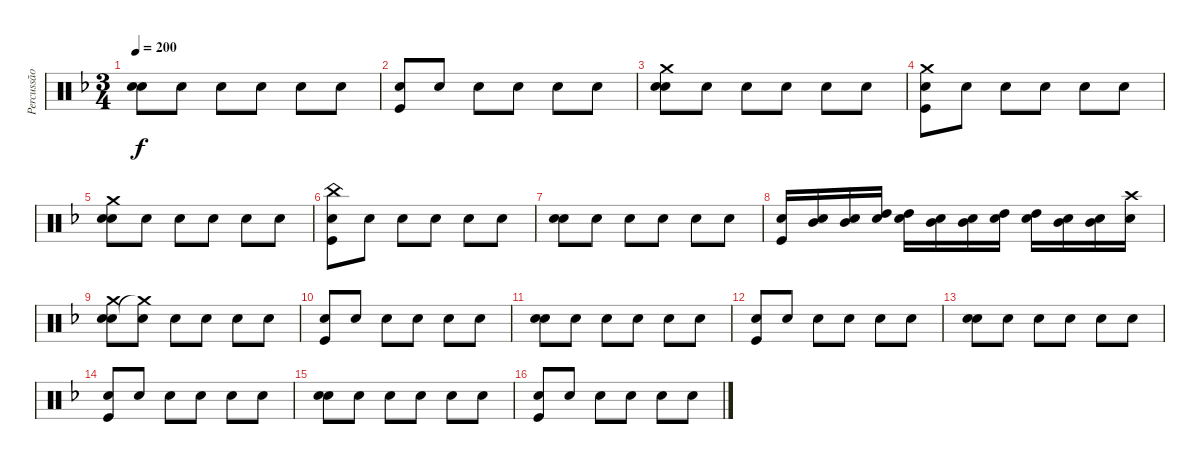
\track ("Percussão" "Percussão") {instrument percussion}
\staff {score}
\articulation defaults
\ts (3 4)
\tempo 200
\clef neutral
\ks dminor
("Hand Clap (hit)" "Snare (hit) 2").8{dy f} "Hand Clap (hit)".8 "Hand Clap (hit)".8 "Hand Clap (hit)".8 "Hand Clap (hit)".8 "Hand Clap (hit)".8 |
("Hand Clap (hit)" "Kick (hit)").8 "Hand Clap (hit)".8 "Hand Clap (hit)".8 "Hand Clap (hit)".8 "Hand Clap (hit)".8 "Hand Clap (hit)".8 |
("Hand Clap (hit)" "Snare (hit) 2" "Crash medium (hit)").8 "Hand Clap (hit)".8 "Hand Clap (hit)".8 "Hand Clap (hit)".8 "Hand Clap (hit)".8 "Hand Clap (hit)".8 |
("Hand Clap (hit)" "Kick (hit)" "Crash medium (hit)").8 "Hand Clap (hit)".8 "Hand Clap (hit)".8 "Hand Clap (hit)".8 "Hand Clap (hit)".8 "Hand Clap (hit)".8 |
("Hand Clap (hit)" "Snare (hit) 2" "Crash medium (hit)").8 "Hand Clap (hit)".8 "Hand Clap (hit)".8 "Hand Clap (hit)".8 "Hand Clap (hit)".8 "Hand Clap (hit)".8 |
("Hand Clap (hit)" "Kick (hit)" "China (hit)").8 "Hand Clap (hit)".8 "Hand Clap (hit)".8 "Hand Clap (hit)".8 "Hand Clap (hit)".8 "Hand Clap (hit)".8 |
("Hand Clap (hit)" "Snare (hit) 2").8 "Hand Clap (hit)".8 "Hand Clap (hit)".8 "Hand Clap (hit)".8 "Hand Clap (hit)".8 "Hand Clap (hit)".8 |
("Hand Clap (hit)" "Kick (hit)").16 ("Hand Clap (hit)" "Mid Tom (hit)").16 ("Hand Clap (hit)" "Mid Tom (hit)").16 ("Hand Clap (hit)" "High Tom (hit)").16 ("Hand Clap (hit)" "High Tom (hit)").16 ("Hand Clap (hit)" "Mid Tom (hit)").16 ("Hand Clap (hit)" "Mid Tom (hit)").16 ("Hand Clap (hit)" "High Tom (hit)").16 ("Hand Clap (hit)" "High Tom (hit)").16 ("Hand Clap (hit)" "Mid Tom (hit)").16 ("Hand Clap (hit)" "Mid Tom (hit)").16 ("Hand Clap (hit)" "Crash high (hit)").16 |
("Hand Clap (hit)" "Snare (hit) 2" "Crash medium (hit)").8 ("Hand Clap (hit)" "Crash medium (hit)"{t}).8 "Hand Clap (hit)".8 "Hand Clap (hit)".8 "Hand Clap (hit)".8 "Hand Clap (hit)".8 |
("Hand Clap (hit)" "Kick (hit)").8 "Hand Clap (hit)".8 "Hand Clap (hit)".8 "Hand Clap (hit)".8 "Hand Clap (hit)".8 "Hand Clap (hit)".8 |
("Hand Clap (hit)" "Snare (hit) 2").8 "Hand Clap (hit)".8 "Hand Clap (hit)".8 "Hand Clap (hit)".8 "Hand Clap (hit)".8 "Hand Clap (hit)".8 |
("Hand Clap (hit)" "Kick (hit)").8 "Hand Clap (hit)".8 "Hand Clap (hit)".8 "Hand Clap (hit)".8 "Hand Clap (hit)".8 "Hand Clap (hit)".8 |
("Hand Clap (hit)" "Snare (hit) 2").8 "Hand Clap (hit)".8 "Hand Clap (hit)".8 "Hand Clap (hit)".8 "Hand Clap (hit)".8 "Hand Clap (hit)".8 |
("Hand Clap (hit)" "Kick (hit)").8 "Hand Clap (hit)".8 "Hand Clap (hit)".8 "Hand Clap (hit)".8 "Hand Clap (hit)".8 "Hand Clap (hit)".8 |
("Hand Clap (hit)" "Snare (hit) 2").8 "Hand Clap (hit)".8 "Hand Clap (hit)".8 "Hand Clap (hit)".8 "Hand Clap (hit)".8 "Hand Clap (hit)".8 |
("Hand Clap (hit)" "Kick (hit)").8 "Hand Clap (hit)".8 "Hand Clap (hit)".8 "Hand Clap (hit)".8 "Hand Clap (hit)".8 "Hand Clap (hit)".8
